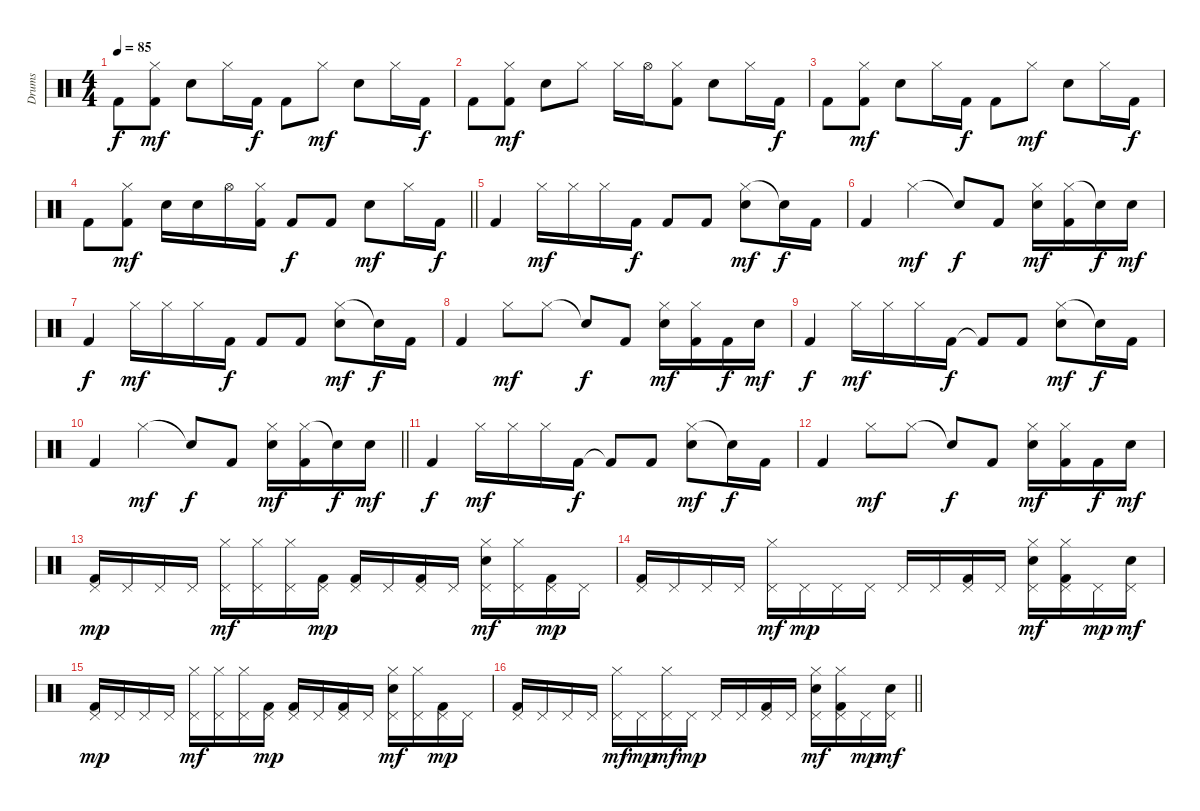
\track ("Drums" "Drums") {instrument percussion}
\staff {score}
\articulation defaults
\ts (4 4)
\tempo 85
\clef neutral
\ks c "Kick (hit) 2".8{dy f}
("Hi-Hat (closed)" "Kick (hit) 2").8{dy mf} "Snare (hit) 2".8 "Hi-Hat (closed)".16 "Kick (hit) 2".16{dy f} "Kick (hit) 2".8 "Hi-Hat (closed)".8{dy mf} "Snare (hit) 2".8 "Hi-Hat (closed)".16 "Kick (hit) 2".16{dy f} |
"Kick (hit) 2".8 ("Hi-Hat (closed)" "Kick (hit) 2").8{dy mf} "Snare (hit) 2".8 "Hi-Hat (closed)".8 "Hi-Hat (closed)".16 "Hi-Hat (open)".16 ("Hi-Hat (closed)" "Kick (hit) 2").8 "Snare (hit) 2".8 "Hi-Hat (closed)".16 "Kick (hit) 2".16{dy f} |
"Kick (hit) 2".8 ("Hi-Hat (closed)" "Kick (hit) 2").8{dy mf} "Snare (hit) 2".8 "Hi-Hat (closed)".16 "Kick (hit) 2".16{dy f} "Kick (hit) 2".8 "Hi-Hat (closed)".8{dy mf} "Snare (hit) 2".8 "Hi-Hat (closed)".16 "Kick (hit) 2".16{dy f} |
\barLineRight lightlight "Kick (hit) 2".8
("Hi-Hat (closed)" "Kick (hit) 2").8{dy mf} "Snare (hit) 2".16 "Snare (hit) 2".16 "Hi-Hat (open)".16 ("Hi-Hat (closed)" "Kick (hit) 2").16 "Kick (hit) 2".8{dy f} "Kick (hit) 2".8 "Snare (hit) 2".8{dy mf} "Hi-Hat (closed)".16 "Kick (hit) 2".16{dy f} |
\section ("" "")
"Kick (hit) 2".4 "Hi-Hat (closed)".16{dy mf} "Hi-Hat (closed)".16 "Hi-Hat (closed)".16 "Kick (hit) 2".16{dy f} "Kick (hit) 2".8 "Kick (hit) 2".8 ("Hi-Hat (closed)" "Snare (hit) 2").8{dy mf} "Snare (hit)"{t}.16{dy f} "Kick (hit) 2".16 |
"Kick (hit) 2".4 "Hi-Hat (closed)".4{dy mf} "Snare (hit)"{t}.8{dy f} "Kick (hit) 2".8 ("Hi-Hat (closed)" "Snare (hit) 2").16{dy mf} ("Hi-Hat (closed)" "Kick (hit) 2").16 "Snare (hit)"{t}.16{dy f} "Snare (hit) 2".16{dy mf} |
"Kick (hit) 2".4{dy f} "Hi-Hat (closed)".16{dy mf} "Hi-Hat (closed)".16 "Hi-Hat (closed)".16 "Kick (hit) 2".16{dy f} "Kick (hit) 2".8 "Kick (hit) 2".8 ("Hi-Hat (closed)" "Snare (hit) 2").8{dy mf} "Snare (hit)"{t}.16{dy f} "Kick (hit) 2".16 |
"Kick (hit) 2".4 "Hi-Hat (closed)".8{dy mf} "Hi-Hat (closed)".8 "Snare (hit)"{t}.8{dy f} "Kick (hit) 2".8 ("Hi-Hat (closed)" "Snare (hit) 2").16{dy mf} ("Hi-Hat (closed)" "Kick (hit) 2").16 "Kick (hit) 2".16{dy f} "Snare (hit) 2".16{dy mf} |
"Kick (hit) 2".4{dy f} "Hi-Hat (closed)".16{dy mf} "Hi-Hat (closed)".16 "Hi-Hat (closed)".16 "Kick (hit) 2".16{dy f} "Kick (hit) 2"{t}.8 "Kick (hit) 2".8 ("Hi-Hat (closed)" "Snare (hit) 2").8{dy mf} "Snare (hit)"{t}.16{dy f} "Kick (hit) 2".16 |
\barLineRight lightlight "Kick (hit) 2".4 "Hi-Hat (closed)".4{dy mf} "Snare (hit)"{t}.8{dy f} "Kick (hit) 2".8
("Hi-Hat (closed)" "Snare (hit) 2").16{dy mf} ("Hi-Hat (closed)" "Kick (hit) 2").16 "Snare (hit)"{t}.16{dy f} "Snare (hit) 2".16{dy mf} |
\section ("" "")
"Kick (hit) 2".4{dy f} "Hi-Hat (closed)".16{dy mf} "Hi-Hat (closed)".16 "Hi-Hat (closed)".16 "Kick (hit) 2".16{dy f} "Kick (hit) 2"{t}.8 "Kick (hit) 2".8 ("Hi-Hat (closed)" "Snare (hit) 2").8{dy mf} "Snare (hit)"{t}.16{dy f} "Kick (hit) 2".16 |
"Kick (hit) 2".4 "Hi-Hat (closed)".8{dy mf} "Hi-Hat (closed)".8 "Snare (hit)"{t}.8{dy f} "Kick (hit) 2".8 ("Hi-Hat (closed)" "Snare (hit) 2").16{dy mf} ("Hi-Hat (closed)" "Kick (hit) 2").16 "Kick (hit) 2".16{dy f} "Snare (hit) 2".16{dy mf} |
("Pedal Hi-Hat (hit)" "Kick (hit) 2").16{dy mp} "Pedal Hi-Hat (hit)".16 "Pedal Hi-Hat (hit)".16 "Pedal Hi-Hat (hit)".16 ("Pedal Hi-Hat (hit)" "Hi-Hat (closed)").16{dy mf} ("Pedal Hi-Hat (hit)" "Hi-Hat (closed)").16 ("Pedal Hi-Hat (hit)" "Hi-Hat (closed)").16 ("Pedal Hi-Hat (hit)" "Kick (hit) 2").16{dy mp} ("Pedal Hi-Hat (hit)" "Kick (hit) 2").16 "Pedal Hi-Hat (hit)".16 ("Pedal Hi-Hat (hit)" "Kick (hit) 2").16 "Pedal Hi-Hat (hit)".16 ("Pedal Hi-Hat (hit)" "Hi-Hat (closed)" "Snare (hit) 2").16{dy mf} ("Pedal Hi-Hat (hit)" "Hi-Hat (closed)").16 ("Pedal Hi-Hat (hit)" "Kick (hit) 2").16{dy mp} "Pedal Hi-Hat (hit)".16 |
("Pedal Hi-Hat (hit)" "Kick (hit) 2").16 "Pedal Hi-Hat (hit)".16 "Pedal Hi-Hat (hit)".16 "Pedal Hi-Hat (hit)".16 ("Pedal Hi-Hat (hit)" "Hi-Hat (closed)").16{dy mf} "Pedal Hi-Hat (hit)".16{dy mp} "Pedal Hi-Hat (hit)".16 "Pedal Hi-Hat (hit)".16 "Pedal Hi-Hat (hit)".16 "Pedal Hi-Hat (hit)".16 ("Pedal Hi-Hat (hit)" "Kick (hit) 2").16 "Pedal Hi-Hat (hit)".16 ("Pedal Hi-Hat (hit)" "Hi-Hat (closed)" "Snare (hit) 2").16{dy mf} ("Pedal Hi-Hat (hit)" "Hi-Hat (closed)" "Kick (hit) 2").16 "Pedal Hi-Hat (hit)".16{dy mp} ("Pedal Hi-Hat (hit)" "Snare (hit) 2").16{dy mf} |
("Pedal Hi-Hat (hit)" "Kick (hit) 2").16{dy mp} "Pedal Hi-Hat (hit)".16 "Pedal Hi-Hat (hit)".16 "Pedal Hi-Hat (hit)".16 ("Pedal Hi-Hat (hit)" "Hi-Hat (closed)").16{dy mf} ("Pedal Hi-Hat (hit)" "Hi-Hat (closed)").16 ("Pedal Hi-Hat (hit)" "Hi-Hat (closed)").16 ("Pedal Hi-Hat (hit)" "Kick (hit) 2").16{dy mp} ("Pedal Hi-Hat (hit)" "Kick (hit) 2").16 "Pedal Hi-Hat (hit)".16 ("Pedal Hi-Hat (hit)" "Kick (hit) 2").16 "Pedal Hi-Hat (hit)".16 ("Pedal Hi-Hat (hit)" "Hi-Hat (closed)" "Snare (hit) 2").16{dy mf} ("Pedal Hi-Hat (hit)" "Hi-Hat (closed)").16 ("Pedal Hi-Hat (hit)" "Kick (hit) 2").16{dy mp} "Pedal Hi-Hat (hit)".16 |
\barLineRight lightlight
("Pedal Hi-Hat (hit)" "Kick (hit) 2").16 "Pedal Hi-Hat (hit)".16 "Pedal Hi-Hat (hit)".16 "Pedal Hi-Hat (hit)".16 ("Pedal Hi-Hat (hit)" "Hi-Hat (closed)").16{dy mf} "Pedal Hi-Hat (hit)".16{dy mp} ("Pedal Hi-Hat (hit)" "Hi-Hat (closed)").16{dy mf} "Pedal Hi-Hat (hit)".16{dy mp} "Pedal Hi-Hat (hit)".16 "Pedal Hi-Hat (hit)".16 ("Pedal Hi-Hat (hit)" "Kick (hit) 2").16 "Pedal Hi-Hat (hit)".16 ("Pedal Hi-Hat (hit)" "Hi-Hat (closed)" "Snare (hit) 2").16{dy mf} ("Pedal Hi-Hat (hit)" "Hi-Hat (closed)" "Kick (hit) 2").16 "Pedal Hi-Hat (hit)".16{dy mp} ("Pedal Hi-Hat (hit)" "Snare (hit) 2").16{dy mf}
